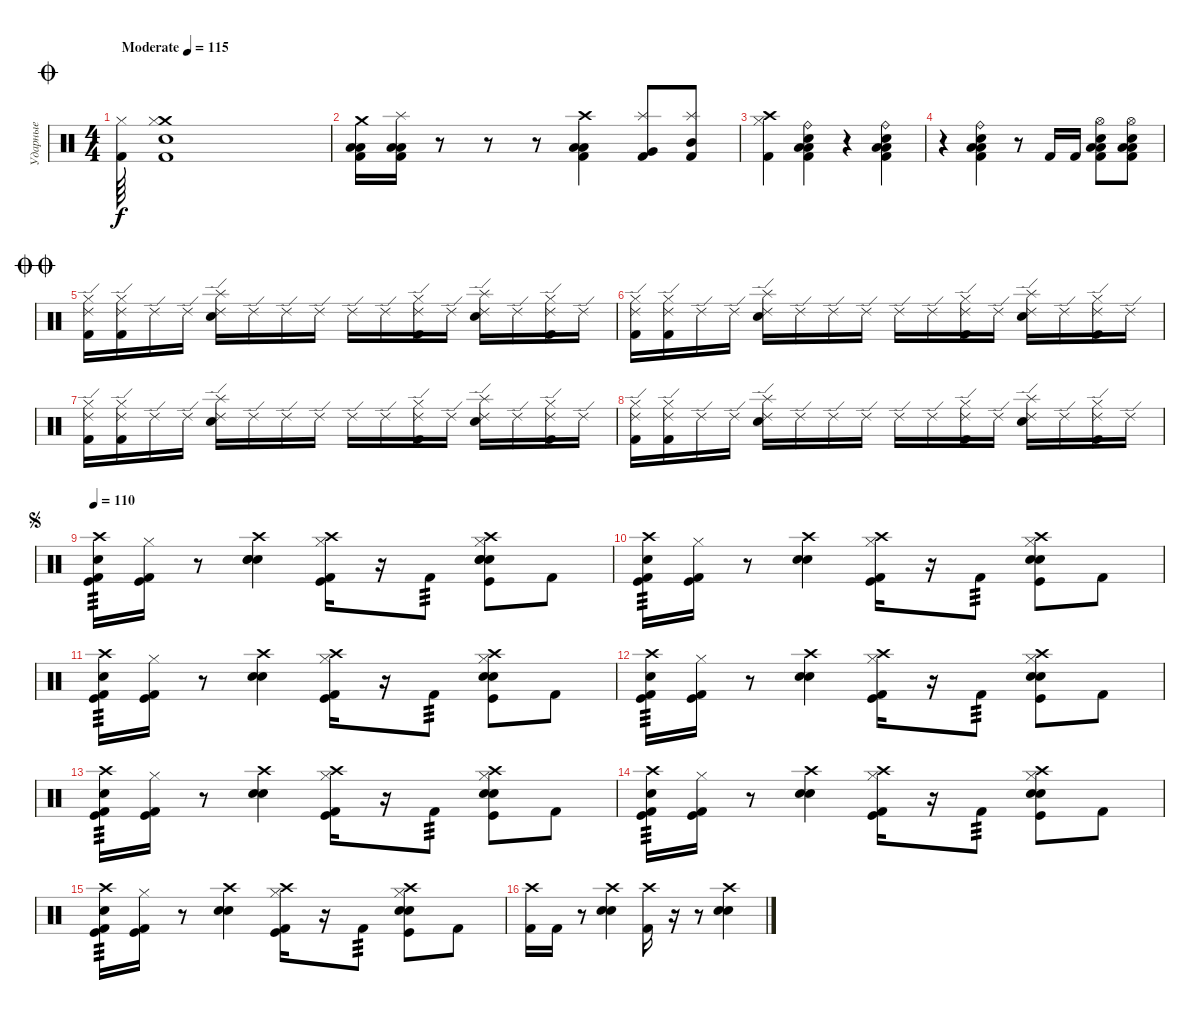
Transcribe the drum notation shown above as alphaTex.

\track ("Ударные" "Ударные") {instrument percussion}
\staff {score}
\articulation defaults
\ts (4 4)
\jump coda
\tempo (115 "Moderate")
\clef neutral
\ks c
("Hi-Hat (closed)" "Kick (hit) 2").64{dy f} ("Crash medium (hit)" "Snare (hit) 2" "Hi-Hat (closed)" "Kick (hit) 2").1 |
("Crash medium (hit)" "Low Floor Tom (hit)" "Low Tom (hit)" "Kick (hit) 2").16 ("Splash (hit)" "Low Floor Tom (hit)" "Low Tom (hit)" "Kick (hit) 2").16 r.8 r.8 r.8 ("Crash high (hit)" "Low Floor Tom (hit)" "Low Tom (hit)" "Kick (hit) 2").4 ("Splash (hit)" "Very Low Tom (hit)" "Kick (hit) 2").8 ("Splash (hit)" "Mid Tom (hit)" "Kick (hit) 2").8 |
("Crash high (hit)" "Hi-Hat (closed)" "Kick (hit) 2").4 ("Ride (bell)" "Low Floor Tom (hit)" "Low Tom (hit)" "Snare (hit) 2" "Kick (hit) 2").4 r.4 ("Ride (bell)" "Low Floor Tom (hit)" "Low Tom (hit)" "Snare (hit) 2" "Kick (hit) 2").4 |
r.4 ("Ride (bell)" "Low Floor Tom (hit)" "Low Tom (hit)" "Snare (hit) 2" "Kick (hit) 2").4 r.8 "Kick (hit) 2".16 "Kick (hit) 2".16 ("Hi-Hat (open)" "Low Floor Tom (hit)" "Low Tom (hit)" "Snare (hit) 2" "Kick (hit) 2").8 ("Hi-Hat (open)" "Low Floor Tom (hit)" "Low Tom (hit)" "Snare (hit) 2" "Kick (hit) 2").8 |
\jump doublecoda
("Ride (edge) 2" "Hi-Hat (closed)" "Kick (hit) 2").16 ("Ride (edge) 2" "Hi-Hat (closed)" "Kick (hit) 2").16 "Ride (edge) 2".16 "Ride (edge) 2".16 ("Ride (edge) 2" "Splash (hit)" "Snare (hit) 2").16 "Ride (edge) 2".16 "Ride (edge) 2".16 "Ride (edge) 2".16 "Ride (edge) 2".16 "Ride (edge) 2".16 ("Ride (edge) 2" "Kick (hit) 2" "Hi-Hat (closed)").16 "Ride (edge) 2".16 ("Ride (edge) 2" "Splash (hit)" "Snare (hit) 2").16 "Ride (edge) 2".16 ("Ride (edge) 2" "Hi-Hat (closed)" "Kick (hit) 2").16 "Ride (edge) 2".16 |
("Ride (edge) 2" "Hi-Hat (closed)" "Kick (hit) 2").16 ("Ride (edge) 2" "Hi-Hat (closed)" "Kick (hit) 2").16 "Ride (edge) 2".16 "Ride (edge) 2".16 ("Ride (edge) 2" "Splash (hit)" "Snare (hit) 2").16 "Ride (edge) 2".16 "Ride (edge) 2".16 "Ride (edge) 2".16 "Ride (edge) 2".16 "Ride (edge) 2".16 ("Ride (edge) 2" "Kick (hit) 2" "Hi-Hat (closed)").16 "Ride (edge) 2".16 ("Ride (edge) 2" "Splash (hit)" "Snare (hit) 2").16 "Ride (edge) 2".16 ("Ride (edge) 2" "Hi-Hat (closed)" "Kick (hit) 2").16 "Ride (edge) 2".16 |
("Ride (edge) 2" "Hi-Hat (closed)" "Kick (hit) 2").16 ("Ride (edge) 2" "Hi-Hat (closed)" "Kick (hit) 2").16 "Ride (edge) 2".16 "Ride (edge) 2".16 ("Ride (edge) 2" "Splash (hit)" "Snare (hit) 2").16 "Ride (edge) 2".16 "Ride (edge) 2".16 "Ride (edge) 2".16 "Ride (edge) 2".16 "Ride (edge) 2".16 ("Ride (edge) 2" "Kick (hit) 2" "Hi-Hat (closed)").16 "Ride (edge) 2".16 ("Ride (edge) 2" "Splash (hit)" "Snare (hit) 2").16 "Ride (edge) 2".16 ("Ride (edge) 2" "Hi-Hat (closed)" "Kick (hit) 2").16 "Ride (edge) 2".16 |
("Ride (edge) 2" "Hi-Hat (closed)" "Kick (hit) 2").16 ("Ride (edge) 2" "Hi-Hat (closed)" "Kick (hit) 2").16 "Ride (edge) 2".16 "Ride (edge) 2".16 ("Ride (edge) 2" "Splash (hit)" "Snare (hit) 2").16 "Ride (edge) 2".16 "Ride (edge) 2".16 "Ride (edge) 2".16 "Ride (edge) 2".16 "Ride (edge) 2".16 ("Ride (edge) 2" "Kick (hit) 2" "Hi-Hat (closed)").16 "Ride (edge) 2".16 ("Ride (edge) 2" "Splash (hit)" "Snare (hit) 2").16 "Ride (edge) 2".16 ("Ride (edge) 2" "Hi-Hat (closed)" "Kick (hit) 2").16 "Ride (edge) 2".16 |
\jump segno
\tempo 110
("Crash high (hit)" "Kick (hit)" "Snare (hit)" "Kick (hit) 2").16{tp 3} ("Kick (hit)" "Hi-Hat (closed)" "Kick (hit) 2").16 r.8 ("Crash high (hit)" "Electric Snare (hit)" "Electric Snare (hit)" "Snare (hit) 2").4 ("Crash high (hit)" "Hi-Hat (closed)" "Kick (hit)" "Kick (hit) 2").16 r.16 "Kick (hit) 2".8{tp 3} ("Crash high (hit)" "Electric Snare (hit)" "Hi-Hat (closed)" "Electric Snare (hit)" "Snare (hit) 2" "Kick (hit)").8 "Kick (hit) 2".8 |
("Crash high (hit)" "Kick (hit)" "Snare (hit)" "Kick (hit) 2").16{tp 3} ("Kick (hit)" "Hi-Hat (closed)" "Kick (hit) 2").16 r.8 ("Crash high (hit)" "Electric Snare (hit)" "Snare (hit) 2").4 ("Crash high (hit)" "Hi-Hat (closed)" "Kick (hit)" "Kick (hit) 2").16 r.16 "Kick (hit) 2".8{tp 3} ("Crash high (hit)" "Hi-Hat (closed)" "Electric Snare (hit)" "Snare (hit) 2" "Kick (hit)").8 "Kick (hit) 2".8 |
("Crash high (hit)" "Kick (hit)" "Snare (hit)" "Kick (hit) 2").16{tp 3} ("Kick (hit)" "Hi-Hat (closed)" "Kick (hit) 2").16 r.8 ("Crash high (hit)" "Electric Snare (hit)" "Snare (hit) 2").4 ("Crash high (hit)" "Hi-Hat (closed)" "Kick (hit)" "Kick (hit) 2").16 r.16 "Kick (hit) 2".8{tp 3} ("Crash high (hit)" "Hi-Hat (closed)" "Electric Snare (hit)" "Snare (hit) 2" "Kick (hit)").8 "Kick (hit) 2".8 |
("Crash high (hit)" "Kick (hit)" "Snare (hit)" "Kick (hit) 2").16{tp 3} ("Kick (hit)" "Hi-Hat (closed)" "Kick (hit) 2").16 r.8 ("Crash high (hit)" "Electric Snare (hit)" "Snare (hit) 2").4 ("Crash high (hit)" "Hi-Hat (closed)" "Kick (hit)" "Kick (hit) 2").16 r.16 "Kick (hit) 2".8{tp 3} ("Crash high (hit)" "Hi-Hat (closed)" "Electric Snare (hit)" "Snare (hit) 2" "Kick (hit)").8 "Kick (hit) 2".8 |
("Crash high (hit)" "Kick (hit)" "Snare (hit)" "Kick (hit) 2").16{tp 3} ("Kick (hit)" "Hi-Hat (closed)" "Kick (hit) 2").16 r.8 ("Crash high (hit)" "Electric Snare (hit)" "Snare (hit) 2").4 ("Crash high (hit)" "Hi-Hat (closed)" "Kick (hit)" "Kick (hit) 2").16 r.16 "Kick (hit) 2".8{tp 3} ("Crash high (hit)" "Hi-Hat (closed)" "Electric Snare (hit)" "Snare (hit) 2" "Kick (hit)").8 "Kick (hit) 2".8 |
("Crash high (hit)" "Kick (hit)" "Snare (hit)" "Kick (hit) 2").16{tp 3} ("Kick (hit)" "Hi-Hat (closed)" "Kick (hit) 2").16 r.8 ("Crash high (hit)" "Electric Snare (hit)" "Snare (hit) 2").4 ("Crash high (hit)" "Hi-Hat (closed)" "Kick (hit)" "Kick (hit) 2").16 r.16 "Kick (hit) 2".8{tp 3} ("Crash high (hit)" "Hi-Hat (closed)" "Electric Snare (hit)" "Snare (hit) 2" "Kick (hit)").8 "Kick (hit) 2".8 |
("Crash high (hit)" "Kick (hit)" "Snare (hit)" "Kick (hit) 2").16{tp 3} ("Kick (hit)" "Hi-Hat (closed)" "Kick (hit) 2").16 r.8 ("Crash high (hit)" "Electric Snare (hit)" "Snare (hit) 2").4 ("Crash high (hit)" "Hi-Hat (closed)" "Kick (hit)" "Kick (hit) 2").16 r.16 "Kick (hit) 2".8{tp 3} ("Crash high (hit)" "Hi-Hat (closed)" "Electric Snare (hit)" "Snare (hit) 2" "Kick (hit)").8 "Kick (hit) 2".8 |
("Crash high (hit)" "Kick (hit) 2").16 "Kick (hit) 2".16 r.8 ("Crash high (hit)" "Electric Snare (hit)" "Snare (hit) 2").4 ("Crash high (hit)" "Kick (hit) 2").16 r.16 r.8 ("Crash high (hit)" "Electric Snare (hit)" "Snare (hit) 2").4
